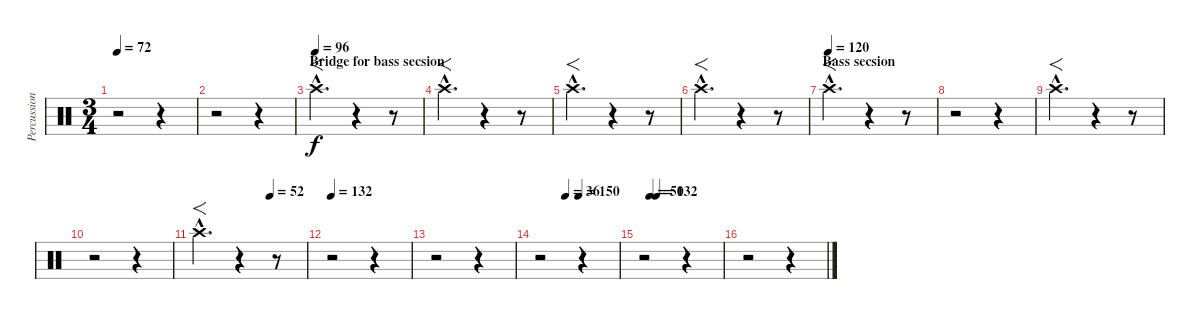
\track ("Percussion" "Percussion") {instrument percussion}
\staff {score}
\articulation defaults
\ts (3 4)
\tempo 72
\clef neutral
\ks c
r.2{dy mp} r.4 |
r.2 r.4 |
\section ("" "Bridge for bass secsion")
\tempo (96)
"Crash high (hit)"{hac}.4{f d dy f} r.4 r.8 |
"Crash high (hit)"{hac}.4{f d} r.4 r.8 |
"Crash high (hit)"{hac}.4{f d} r.4 r.8 |
"Crash high (hit)"{hac}.4{f d} r.4 r.8 |
\section ("" "Bass secsion")
\tempo (120)
"Crash high (hit)"{hac}.4{f d} r.4 r.8 |
r.2 r.4 |
"Crash high (hit)"{hac}.4{f d} r.4 r.8 |
r.2 r.4 |
\tempo (52 0.6666666666666666)
"Crash high (hit)"{hac}.4{f d} r.4 r.8 |
\tempo 132
r.2 r.4 |
r.2 r.4 |
\tempo (36 0.3333333333333333)
\tempo (150 0.5)
r.2 r.4 |
\tempo (50 0.08333333333333333)
\tempo (132 0.16666666666666666)
r.2 r.4 |
r.2 r.4
